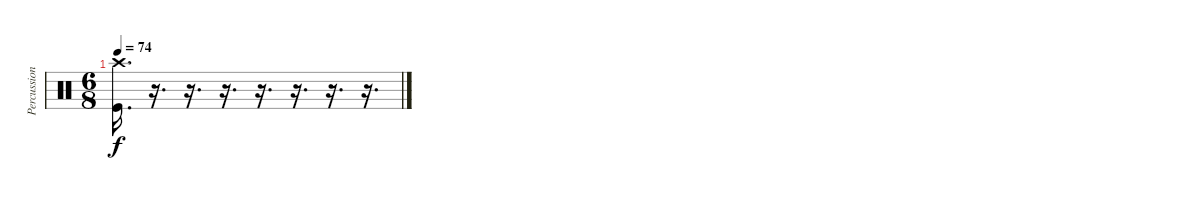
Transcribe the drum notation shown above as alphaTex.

\track ("Percussioni" "Percussion") {instrument percussion}
\staff {score}
\articulation defaults
\ts (6 8)
\tempo 74
\clef neutral
\ks c
("Crash high (hit)" "Kick (hit)").16{d dy f} r.16{d} r.16{d} r.16{d} r.16{d} r.16{d} r.16{d} r.16{d}
